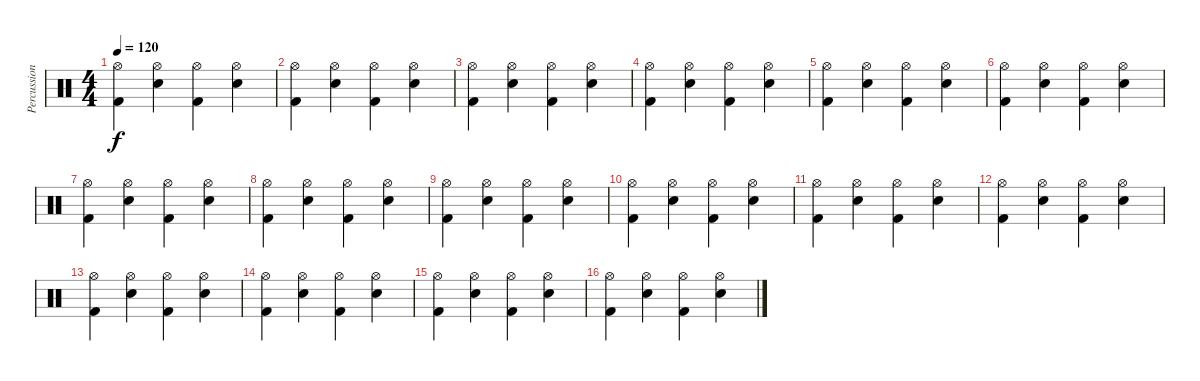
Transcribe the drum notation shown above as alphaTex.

\track ("Percussions" "Percussion") {instrument percussion}
\staff {score}
\articulation defaults
\ts (4 4)
\tempo 120
\clef neutral
\ks c
("Hi-Hat (open)" "Kick (hit) 2").4{dy f} ("Hi-Hat (open)" "Electric Snare (hit)").4 ("Hi-Hat (open)" "Kick (hit) 2").4 ("Hi-Hat (open)" "Electric Snare (hit)").4 |
("Hi-Hat (open)" "Kick (hit) 2").4 ("Hi-Hat (open)" "Electric Snare (hit)").4 ("Hi-Hat (open)" "Kick (hit) 2").4 ("Hi-Hat (open)" "Electric Snare (hit)").4 |
("Hi-Hat (open)" "Kick (hit) 2").4 ("Hi-Hat (open)" "Electric Snare (hit)").4 ("Hi-Hat (open)" "Kick (hit) 2").4 ("Hi-Hat (open)" "Electric Snare (hit)").4 |
("Hi-Hat (open)" "Kick (hit) 2").4 ("Hi-Hat (open)" "Electric Snare (hit)").4 ("Hi-Hat (open)" "Kick (hit) 2").4 ("Hi-Hat (open)" "Electric Snare (hit)").4 |
("Hi-Hat (open)" "Kick (hit) 2").4 ("Hi-Hat (open)" "Electric Snare (hit)").4 ("Hi-Hat (open)" "Kick (hit) 2").4 ("Hi-Hat (open)" "Electric Snare (hit)").4 |
("Hi-Hat (open)" "Kick (hit) 2").4 ("Hi-Hat (open)" "Electric Snare (hit)").4 ("Hi-Hat (open)" "Kick (hit) 2").4 ("Hi-Hat (open)" "Electric Snare (hit)").4 |
("Hi-Hat (open)" "Kick (hit) 2").4 ("Hi-Hat (open)" "Electric Snare (hit)").4 ("Hi-Hat (open)" "Kick (hit) 2").4 ("Hi-Hat (open)" "Electric Snare (hit)").4 |
("Hi-Hat (open)" "Kick (hit) 2").4 ("Hi-Hat (open)" "Electric Snare (hit)").4 ("Hi-Hat (open)" "Kick (hit) 2").4 ("Hi-Hat (open)" "Electric Snare (hit)").4 |
("Hi-Hat (open)" "Kick (hit) 2").4 ("Hi-Hat (open)" "Electric Snare (hit)").4 ("Hi-Hat (open)" "Kick (hit) 2").4 ("Hi-Hat (open)" "Electric Snare (hit)").4 |
("Hi-Hat (open)" "Kick (hit) 2").4 ("Hi-Hat (open)" "Electric Snare (hit)").4 ("Hi-Hat (open)" "Kick (hit) 2").4 ("Hi-Hat (open)" "Electric Snare (hit)").4 |
("Hi-Hat (open)" "Kick (hit) 2").4 ("Hi-Hat (open)" "Electric Snare (hit)").4 ("Hi-Hat (open)" "Kick (hit) 2").4 ("Hi-Hat (open)" "Electric Snare (hit)").4 |
("Hi-Hat (open)" "Kick (hit) 2").4 ("Hi-Hat (open)" "Electric Snare (hit)").4 ("Hi-Hat (open)" "Kick (hit) 2").4 ("Hi-Hat (open)" "Electric Snare (hit)").4 |
("Hi-Hat (open)" "Kick (hit) 2").4 ("Hi-Hat (open)" "Electric Snare (hit)").4 ("Hi-Hat (open)" "Kick (hit) 2").4 ("Hi-Hat (open)" "Electric Snare (hit)").4 |
("Hi-Hat (open)" "Kick (hit) 2").4 ("Hi-Hat (open)" "Electric Snare (hit)").4 ("Hi-Hat (open)" "Kick (hit) 2").4 ("Hi-Hat (open)" "Electric Snare (hit)").4 |
("Hi-Hat (open)" "Kick (hit) 2").4 ("Hi-Hat (open)" "Electric Snare (hit)").4 ("Hi-Hat (open)" "Kick (hit) 2").4 ("Hi-Hat (open)" "Electric Snare (hit)").4 |
("Hi-Hat (open)" "Kick (hit) 2").4 ("Hi-Hat (open)" "Electric Snare (hit)").4 ("Hi-Hat (open)" "Kick (hit) 2").4 ("Hi-Hat (open)" "Electric Snare (hit)").4
